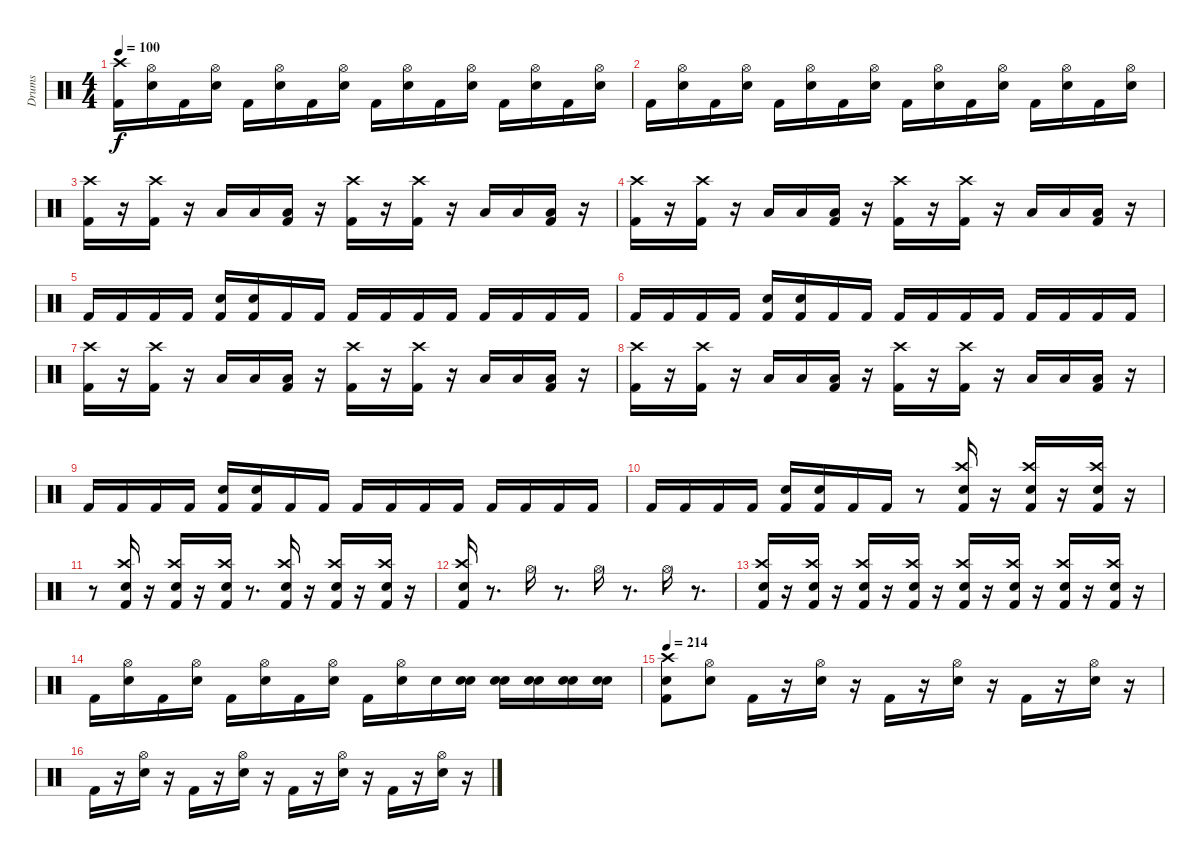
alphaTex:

\track ("Drums               " "Drums     ") {instrument percussion}
\staff {score}
\articulation defaults
\ts (4 4)
\tempo 100
\clef neutral
\ks c
("Kick (hit) 2" "Crash high (hit)").16{dy f} ("Snare (hit) 2" "Hi-Hat (open)").16 "Kick (hit) 2".16 ("Snare (hit) 2" "Hi-Hat (open)").16 "Kick (hit) 2".16 ("Snare (hit) 2" "Hi-Hat (open)").16 "Kick (hit) 2".16 ("Snare (hit) 2" "Hi-Hat (open)").16 "Kick (hit) 2".16 ("Snare (hit) 2" "Hi-Hat (open)").16 "Kick (hit) 2".16 ("Snare (hit) 2" "Hi-Hat (open)").16 "Kick (hit) 2".16 ("Snare (hit) 2" "Hi-Hat (open)").16 "Kick (hit) 2".16 ("Snare (hit) 2" "Hi-Hat (open)").16 |
"Kick (hit) 2".16 ("Snare (hit) 2" "Hi-Hat (open)").16 "Kick (hit) 2".16 ("Snare (hit) 2" "Hi-Hat (open)").16 "Kick (hit) 2".16 ("Snare (hit) 2" "Hi-Hat (open)").16 "Kick (hit) 2".16 ("Snare (hit) 2" "Hi-Hat (open)").16 "Kick (hit) 2".16 ("Snare (hit) 2" "Hi-Hat (open)").16 "Kick (hit) 2".16 ("Snare (hit) 2" "Hi-Hat (open)").16 "Kick (hit) 2".16 ("Snare (hit) 2" "Hi-Hat (open)").16 "Kick (hit) 2".16 ("Snare (hit) 2" "Hi-Hat (open)").16 |
("Kick (hit) 2" "Crash high (hit)").16 r.16 ("Kick (hit) 2" "Crash high (hit)").16 r.16 "Low Tom (hit)".16 "Low Tom (hit)".16 ("Kick (hit) 2" "Low Tom (hit)").16 r.16 ("Kick (hit) 2" "Crash high (hit)").16 r.16 ("Kick (hit) 2" "Crash high (hit)").16 r.16 "Low Tom (hit)".16 "Low Tom (hit)".16 ("Kick (hit) 2" "Low Tom (hit)").16 r.16 |
("Kick (hit) 2" "Crash high (hit)").16 r.16 ("Kick (hit) 2" "Crash high (hit)").16 r.16 "Low Tom (hit)".16 "Low Tom (hit)".16 ("Kick (hit) 2" "Low Tom (hit)").16 r.16 ("Kick (hit) 2" "Crash high (hit)").16 r.16 ("Kick (hit) 2" "Crash high (hit)").16 r.16 "Low Tom (hit)".16 "Low Tom (hit)".16 ("Kick (hit) 2" "Low Tom (hit)").16 r.16 |
"Kick (hit) 2".16 "Kick (hit) 2".16 "Kick (hit) 2".16 "Kick (hit) 2".16 ("Kick (hit) 2" "Snare (hit) 2").16 ("Kick (hit) 2" "Snare (hit) 2").16 "Kick (hit) 2".16 "Kick (hit) 2".16 "Kick (hit) 2".16 "Kick (hit) 2".16 "Kick (hit) 2".16 "Kick (hit) 2".16 "Kick (hit) 2".16 "Kick (hit) 2".16 "Kick (hit) 2".16 "Kick (hit) 2".16 |
"Kick (hit) 2".16 "Kick (hit) 2".16 "Kick (hit) 2".16 "Kick (hit) 2".16 ("Kick (hit) 2" "Snare (hit) 2").16 ("Kick (hit) 2" "Snare (hit) 2").16 "Kick (hit) 2".16 "Kick (hit) 2".16 "Kick (hit) 2".16 "Kick (hit) 2".16 "Kick (hit) 2".16 "Kick (hit) 2".16 "Kick (hit) 2".16 "Kick (hit) 2".16 "Kick (hit) 2".16 "Kick (hit) 2".16 |
("Kick (hit) 2" "Crash high (hit)").16 r.16 ("Kick (hit) 2" "Crash high (hit)").16 r.16 "Low Tom (hit)".16 "Low Tom (hit)".16 ("Kick (hit) 2" "Low Tom (hit)").16 r.16 ("Kick (hit) 2" "Crash high (hit)").16 r.16 ("Kick (hit) 2" "Crash high (hit)").16 r.16 "Low Tom (hit)".16 "Low Tom (hit)".16 ("Kick (hit) 2" "Low Tom (hit)").16 r.16 |
("Kick (hit) 2" "Crash high (hit)").16 r.16 ("Kick (hit) 2" "Crash high (hit)").16 r.16 "Low Tom (hit)".16 "Low Tom (hit)".16 ("Kick (hit) 2" "Low Tom (hit)").16 r.16 ("Kick (hit) 2" "Crash high (hit)").16 r.16 ("Kick (hit) 2" "Crash high (hit)").16 r.16 "Low Tom (hit)".16 "Low Tom (hit)".16 ("Kick (hit) 2" "Low Tom (hit)").16 r.16 |
"Kick (hit) 2".16 "Kick (hit) 2".16 "Kick (hit) 2".16 "Kick (hit) 2".16 ("Kick (hit) 2" "Snare (hit) 2").16 ("Kick (hit) 2" "Snare (hit) 2").16 "Kick (hit) 2".16 "Kick (hit) 2".16 "Kick (hit) 2".16 "Kick (hit) 2".16 "Kick (hit) 2".16 "Kick (hit) 2".16 "Kick (hit) 2".16 "Kick (hit) 2".16 "Kick (hit) 2".16 "Kick (hit) 2".16 |
"Kick (hit) 2".16 "Kick (hit) 2".16 "Kick (hit) 2".16 "Kick (hit) 2".16 ("Kick (hit) 2" "Snare (hit) 2").16 ("Kick (hit) 2" "Snare (hit) 2").16 "Kick (hit) 2".16 "Kick (hit) 2".16 r.8 ("Kick (hit) 2" "Snare (hit) 2" "Crash high (hit)").16 r.16 ("Kick (hit) 2" "Snare (hit) 2" "Crash high (hit)").16 r.16 ("Kick (hit) 2" "Snare (hit) 2" "Crash high (hit)").16 r.16 |
r.8 ("Kick (hit) 2" "Snare (hit) 2" "Crash high (hit)").16 r.16 ("Kick (hit) 2" "Snare (hit) 2" "Crash high (hit)").16 r.16 ("Kick (hit) 2" "Snare (hit) 2" "Crash high (hit)").16 r.8{d} ("Kick (hit) 2" "Snare (hit) 2" "Crash high (hit)").16 r.16 ("Kick (hit) 2" "Snare (hit) 2" "Crash high (hit)").16 r.16 ("Kick (hit) 2" "Snare (hit) 2" "Crash high (hit)").16 r.16 |
("Kick (hit) 2" "Snare (hit) 2" "Crash high (hit)").16 r.8{d} "Hi-Hat (open)".16 r.8{d} "Hi-Hat (open)".16 r.8{d} "Hi-Hat (open)".16 r.8{d} |
("Kick (hit) 2" "Snare (hit) 2" "Crash high (hit)").16 r.16 ("Kick (hit) 2" "Snare (hit) 2" "Crash high (hit)").16 r.16 ("Kick (hit) 2" "Snare (hit) 2" "Crash high (hit)").16 r.16 ("Kick (hit) 2" "Snare (hit) 2" "Crash high (hit)").16 r.16 ("Kick (hit) 2" "Snare (hit) 2" "Crash high (hit)").16 r.16 ("Kick (hit) 2" "Snare (hit) 2" "Crash high (hit)").16 r.16 ("Kick (hit) 2" "Snare (hit) 2" "Crash high (hit)").16 r.16 ("Kick (hit) 2" "Snare (hit) 2" "Crash high (hit)").16 r.16 |
"Kick (hit) 2".16 ("Snare (hit) 2" "Hi-Hat (open)").16 "Kick (hit) 2".16 ("Snare (hit) 2" "Hi-Hat (open)").16 "Kick (hit) 2".16 ("Snare (hit) 2" "Hi-Hat (open)").16 "Kick (hit) 2".16 ("Snare (hit) 2" "Hi-Hat (open)").16 "Kick (hit) 2".16 ("Snare (hit) 2" "Hi-Hat (open)").16 "Snare (hit) 2".16 ("Snare (hit) 2" "Snare (hit) 2").16 ("Snare (hit) 2" "Snare (hit) 2").16 ("Snare (hit) 2" "Snare (hit) 2").16 ("Snare (hit) 2" "Snare (hit) 2").16 ("Snare (hit) 2" "Snare (hit) 2").16 |
\tempo 214
("Kick (hit) 2" "Snare (hit) 2" "Crash high (hit)").8 ("Snare (hit) 2" "Hi-Hat (open)").8 "Kick (hit) 2".16 r.16 ("Snare (hit) 2" "Hi-Hat (open)").16 r.16 "Kick (hit) 2".16 r.16 ("Snare (hit) 2" "Hi-Hat (open)").16 r.16 "Kick (hit) 2".16 r.16 ("Snare (hit) 2" "Hi-Hat (open)").16 r.16 |
"Kick (hit) 2".16 r.16 ("Snare (hit) 2" "Hi-Hat (open)").16 r.16 "Kick (hit) 2".16 r.16 ("Snare (hit) 2" "Hi-Hat (open)").16 r.16 "Kick (hit) 2".16 r.16 ("Snare (hit) 2" "Hi-Hat (open)").16 r.16 "Kick (hit) 2".16 r.16 ("Snare (hit) 2" "Hi-Hat (open)").16 r.16
